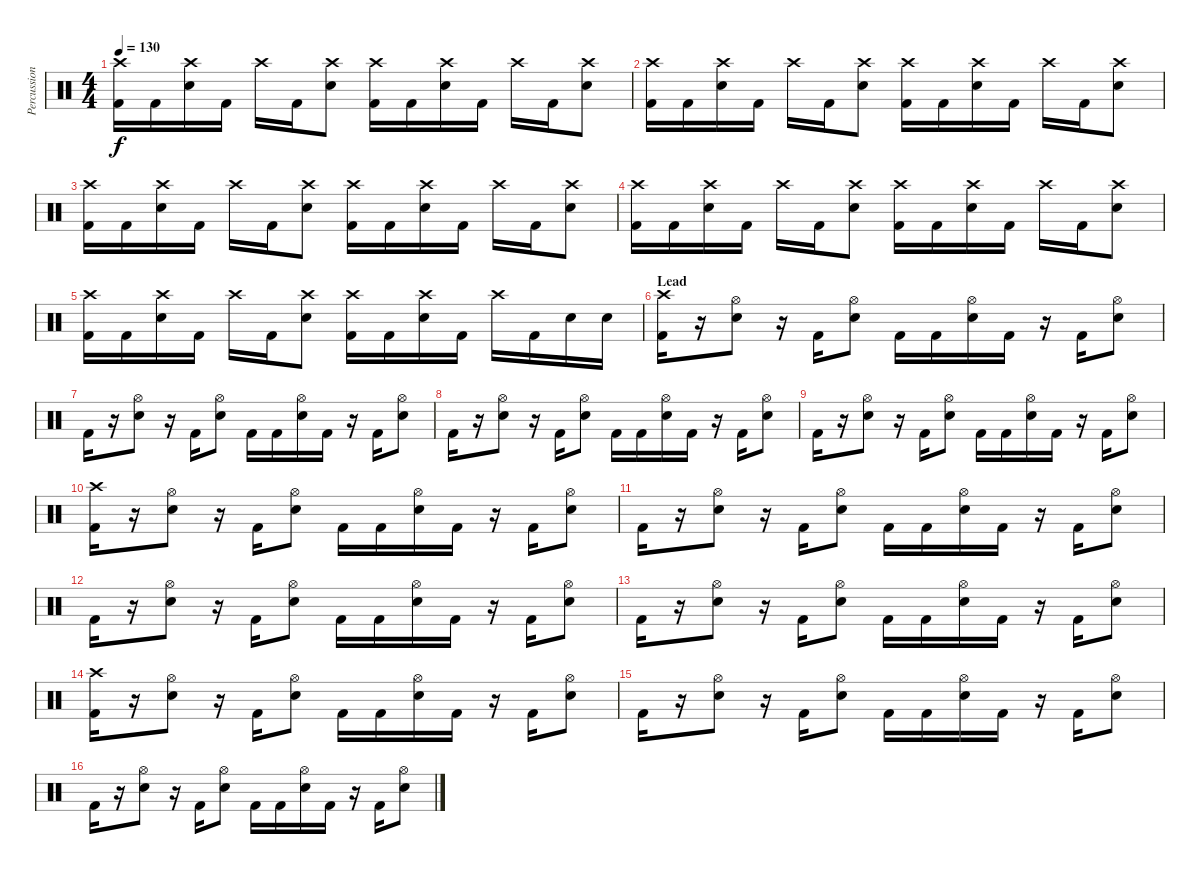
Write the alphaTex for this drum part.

\track ("Percussion" "Percussion") {instrument percussion}
\staff {score}
\articulation defaults
\ts (4 4)
\tempo 130
\clef neutral
\ks c
("Kick (hit) 2" "Crash high (hit)").16{dy f} "Kick (hit) 2".16 ("Electric Snare (hit)" "Crash high (hit)").16 "Kick (hit) 2".16 "Crash high (hit)".16 "Kick (hit) 2".16 ("Electric Snare (hit)" "Crash high (hit)").8 ("Kick (hit) 2" "Crash high (hit)").16 "Kick (hit) 2".16 ("Electric Snare (hit)" "Crash high (hit)").16 "Kick (hit) 2".16 "Crash high (hit)".16 "Kick (hit) 2".16 ("Electric Snare (hit)" "Crash high (hit)").8 |
("Kick (hit) 2" "Crash high (hit)").16 "Kick (hit) 2".16 ("Electric Snare (hit)" "Crash high (hit)").16 "Kick (hit) 2".16 "Crash high (hit)".16 "Kick (hit) 2".16 ("Electric Snare (hit)" "Crash high (hit)").8 ("Kick (hit) 2" "Crash high (hit)").16 "Kick (hit) 2".16 ("Electric Snare (hit)" "Crash high (hit)").16 "Kick (hit) 2".16 "Crash high (hit)".16 "Kick (hit) 2".16 ("Electric Snare (hit)" "Crash high (hit)").8 |
("Kick (hit) 2" "Crash high (hit)").16 "Kick (hit) 2".16 ("Electric Snare (hit)" "Crash high (hit)").16 "Kick (hit) 2".16 "Crash high (hit)".16 "Kick (hit) 2".16 ("Electric Snare (hit)" "Crash high (hit)").8 ("Kick (hit) 2" "Crash high (hit)").16 "Kick (hit) 2".16 ("Electric Snare (hit)" "Crash high (hit)").16 "Kick (hit) 2".16 "Crash high (hit)".16 "Kick (hit) 2".16 ("Electric Snare (hit)" "Crash high (hit)").8 |
("Kick (hit) 2" "Crash high (hit)").16 "Kick (hit) 2".16 ("Electric Snare (hit)" "Crash high (hit)").16 "Kick (hit) 2".16 "Crash high (hit)".16 "Kick (hit) 2".16 ("Electric Snare (hit)" "Crash high (hit)").8 ("Kick (hit) 2" "Crash high (hit)").16 "Kick (hit) 2".16 ("Electric Snare (hit)" "Crash high (hit)").16 "Kick (hit) 2".16 "Crash high (hit)".16 "Kick (hit) 2".16 ("Electric Snare (hit)" "Crash high (hit)").8 |
("Kick (hit) 2" "Crash high (hit)").16 "Kick (hit) 2".16 ("Electric Snare (hit)" "Crash high (hit)").16 "Kick (hit) 2".16 "Crash high (hit)".16 "Kick (hit) 2".16 ("Electric Snare (hit)" "Crash high (hit)").8 ("Kick (hit) 2" "Crash high (hit)").16 "Kick (hit) 2".16 ("Electric Snare (hit)" "Crash high (hit)").16 "Kick (hit) 2".16 "Crash high (hit)".16 "Kick (hit) 2".16 "Electric Snare (hit)".16 "Electric Snare (hit)".16 |
\section ("" "Lead")
("Kick (hit) 2" "Crash high (hit)").16 r.16 ("Electric Snare (hit)" "Hi-Hat (open)").8 r.16 "Kick (hit) 2".16 ("Electric Snare (hit)" "Hi-Hat (open)").8 "Kick (hit) 2".16 "Kick (hit) 2".16 ("Electric Snare (hit)" "Hi-Hat (open)").16 "Kick (hit) 2".16 r.16 "Kick (hit) 2".16 ("Electric Snare (hit)" "Hi-Hat (open)").8 |
"Kick (hit) 2".16 r.16 ("Electric Snare (hit)" "Hi-Hat (open)").8 r.16 "Kick (hit) 2".16 ("Electric Snare (hit)" "Hi-Hat (open)").8 "Kick (hit) 2".16 "Kick (hit) 2".16 ("Electric Snare (hit)" "Hi-Hat (open)").16 "Kick (hit) 2".16 r.16 "Kick (hit) 2".16 ("Electric Snare (hit)" "Hi-Hat (open)").8 |
"Kick (hit) 2".16 r.16 ("Electric Snare (hit)" "Hi-Hat (open)").8 r.16 "Kick (hit) 2".16 ("Electric Snare (hit)" "Hi-Hat (open)").8 "Kick (hit) 2".16 "Kick (hit) 2".16 ("Electric Snare (hit)" "Hi-Hat (open)").16 "Kick (hit) 2".16 r.16 "Kick (hit) 2".16 ("Electric Snare (hit)" "Hi-Hat (open)").8 |
"Kick (hit) 2".16 r.16 ("Electric Snare (hit)" "Hi-Hat (open)").8 r.16 "Kick (hit) 2".16 ("Electric Snare (hit)" "Hi-Hat (open)").8 "Kick (hit) 2".16 "Kick (hit) 2".16 ("Electric Snare (hit)" "Hi-Hat (open)").16 "Kick (hit) 2".16 r.16 "Kick (hit) 2".16 ("Electric Snare (hit)" "Hi-Hat (open)").8 |
("Kick (hit) 2" "Crash high (hit)").16 r.16 ("Electric Snare (hit)" "Hi-Hat (open)").8 r.16 "Kick (hit) 2".16 ("Electric Snare (hit)" "Hi-Hat (open)").8 "Kick (hit) 2".16 "Kick (hit) 2".16 ("Electric Snare (hit)" "Hi-Hat (open)").16 "Kick (hit) 2".16 r.16 "Kick (hit) 2".16 ("Electric Snare (hit)" "Hi-Hat (open)").8 |
"Kick (hit) 2".16 r.16 ("Electric Snare (hit)" "Hi-Hat (open)").8 r.16 "Kick (hit) 2".16 ("Electric Snare (hit)" "Hi-Hat (open)").8 "Kick (hit) 2".16 "Kick (hit) 2".16 ("Electric Snare (hit)" "Hi-Hat (open)").16 "Kick (hit) 2".16 r.16 "Kick (hit) 2".16 ("Electric Snare (hit)" "Hi-Hat (open)").8 |
"Kick (hit) 2".16 r.16 ("Electric Snare (hit)" "Hi-Hat (open)").8 r.16 "Kick (hit) 2".16 ("Electric Snare (hit)" "Hi-Hat (open)").8 "Kick (hit) 2".16 "Kick (hit) 2".16 ("Electric Snare (hit)" "Hi-Hat (open)").16 "Kick (hit) 2".16 r.16 "Kick (hit) 2".16 ("Electric Snare (hit)" "Hi-Hat (open)").8 |
"Kick (hit) 2".16 r.16 ("Electric Snare (hit)" "Hi-Hat (open)").8 r.16 "Kick (hit) 2".16 ("Electric Snare (hit)" "Hi-Hat (open)").8 "Kick (hit) 2".16 "Kick (hit) 2".16 ("Electric Snare (hit)" "Hi-Hat (open)").16 "Kick (hit) 2".16 r.16 "Kick (hit) 2".16 ("Electric Snare (hit)" "Hi-Hat (open)").8 |
("Kick (hit) 2" "Crash high (hit)").16 r.16 ("Electric Snare (hit)" "Hi-Hat (open)").8 r.16 "Kick (hit) 2".16 ("Electric Snare (hit)" "Hi-Hat (open)").8 "Kick (hit) 2".16 "Kick (hit) 2".16 ("Electric Snare (hit)" "Hi-Hat (open)").16 "Kick (hit) 2".16 r.16 "Kick (hit) 2".16 ("Electric Snare (hit)" "Hi-Hat (open)").8 |
"Kick (hit) 2".16 r.16 ("Electric Snare (hit)" "Hi-Hat (open)").8 r.16 "Kick (hit) 2".16 ("Electric Snare (hit)" "Hi-Hat (open)").8 "Kick (hit) 2".16 "Kick (hit) 2".16 ("Electric Snare (hit)" "Hi-Hat (open)").16 "Kick (hit) 2".16 r.16 "Kick (hit) 2".16 ("Electric Snare (hit)" "Hi-Hat (open)").8 |
"Kick (hit) 2".16 r.16 ("Electric Snare (hit)" "Hi-Hat (open)").8 r.16 "Kick (hit) 2".16 ("Electric Snare (hit)" "Hi-Hat (open)").8 "Kick (hit) 2".16 "Kick (hit) 2".16 ("Electric Snare (hit)" "Hi-Hat (open)").16 "Kick (hit) 2".16 r.16 "Kick (hit) 2".16 ("Electric Snare (hit)" "Hi-Hat (open)").8
